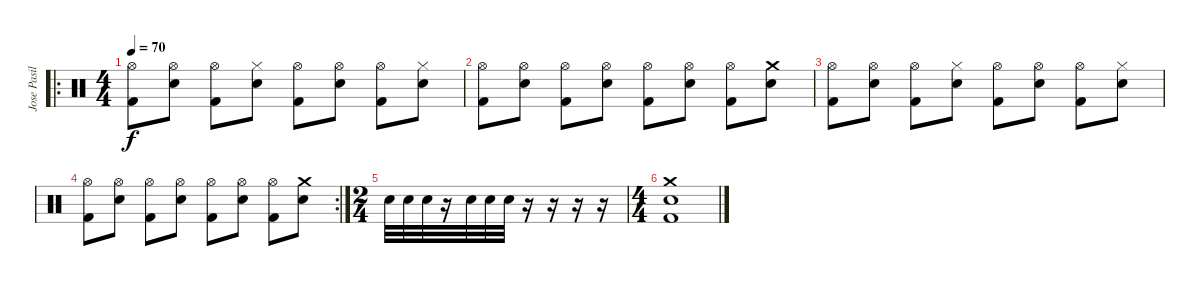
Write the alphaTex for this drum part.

\track ("Jose Pasillas" "Jose Pasil") {instrument percussion}
\staff {score}
\articulation defaults
\ro
\ts (4 4)
\tempo 70
\clef neutral
\ks c
("Hi-Hat (open)" "Kick (hit) 2").8{dy f} ("Hi-Hat (open)" "Snare (hit) 2").8 ("Hi-Hat (open)" "Kick (hit) 2").8 ("Hi-Hat (closed)" "Snare (hit) 2").8 ("Hi-Hat (open)" "Kick (hit) 2").8 ("Hi-Hat (open)" "Snare (hit) 2").8 ("Hi-Hat (open)" "Kick (hit) 2").8 ("Hi-Hat (closed)" "Snare (hit) 2").8 |
("Hi-Hat (open)" "Kick (hit) 2").8 ("Hi-Hat (open)" "Snare (hit) 2").8 ("Hi-Hat (open)" "Kick (hit) 2").8 ("Hi-Hat (open)" "Snare (hit) 2").8 ("Hi-Hat (open)" "Kick (hit) 2").8 ("Hi-Hat (open)" "Snare (hit) 2").8 ("Hi-Hat (open)" "Kick (hit) 2").8 ("Crash medium (hit)" "Snare (hit) 2").8 |
("Hi-Hat (open)" "Kick (hit) 2").8 ("Hi-Hat (open)" "Snare (hit) 2").8 ("Hi-Hat (open)" "Kick (hit) 2").8 ("Hi-Hat (closed)" "Snare (hit) 2").8 ("Hi-Hat (open)" "Kick (hit) 2").8 ("Hi-Hat (open)" "Snare (hit) 2").8 ("Hi-Hat (open)" "Kick (hit) 2").8 ("Hi-Hat (closed)" "Snare (hit) 2").8 |
\rc 2
("Hi-Hat (open)" "Kick (hit) 2").8 ("Hi-Hat (open)" "Snare (hit) 2").8 ("Hi-Hat (open)" "Kick (hit) 2").8 ("Hi-Hat (open)" "Snare (hit) 2").8 ("Hi-Hat (open)" "Kick (hit) 2").8 ("Hi-Hat (open)" "Snare (hit) 2").8 ("Hi-Hat (open)" "Kick (hit) 2").8 ("Crash medium (hit)" "Snare (hit) 2").8 |
\ts (2 4)
"Snare (hit) 2".32 "Snare (hit) 2".32 "Snare (hit) 2".32 r.16 "Snare (hit) 2".32 "Snare (hit) 2".32 "Snare (hit) 2".32 r.16 r.16 r.16 r.16 |
\ts (4 4)
("Snare (hit) 2" "Crash medium (hit)" "Kick (hit) 2").1
